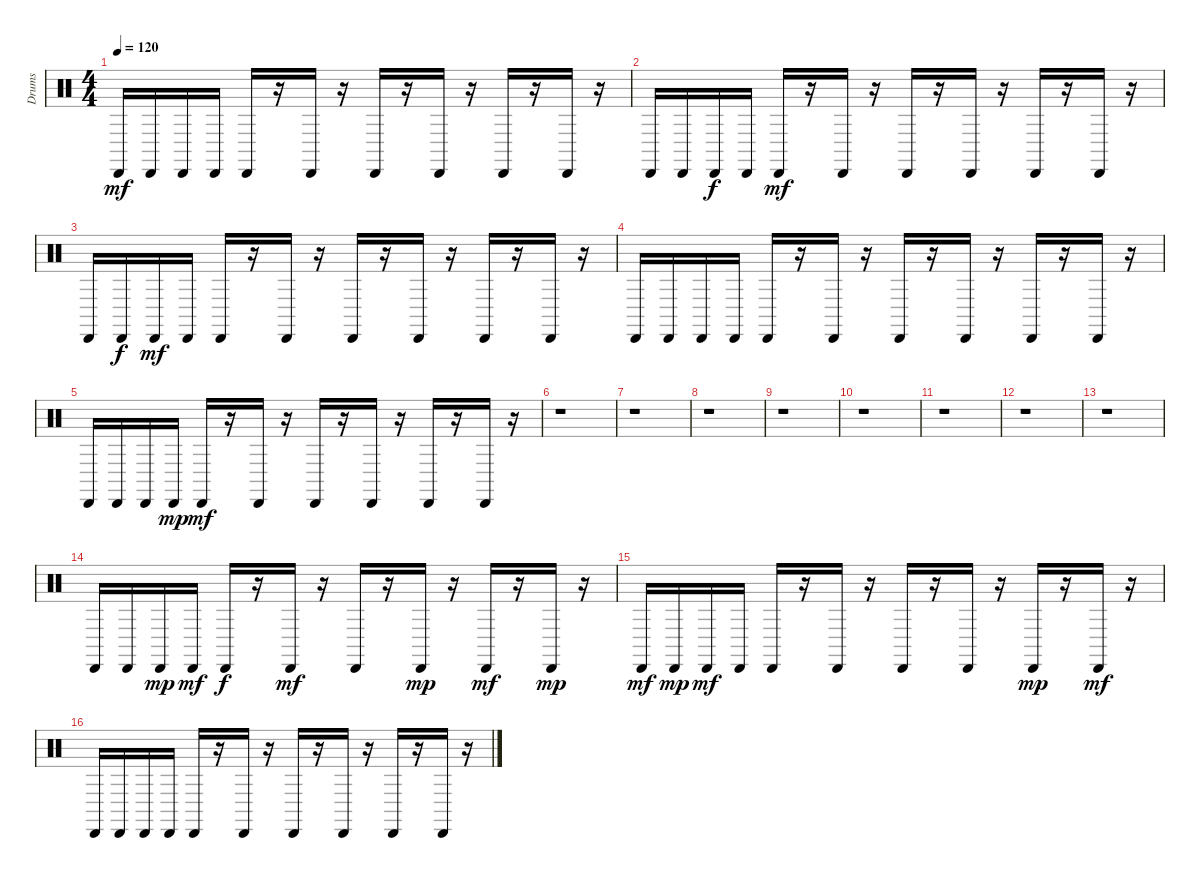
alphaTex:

\track ("Drums" "Drums") {instrument percussion}
\staff {score}
\articulation defaults
\ts (4 4)
\tempo 120
\clef neutral
\ks c "Cabasa (hit)".16{dy mf} "Cabasa (hit)".16 "Cabasa (hit)".16 "Cabasa (hit)".16 "Cabasa (hit)".16
r.16 "Cabasa (hit)".16 r.16 "Cabasa (hit)".16 r.16 "Cabasa (hit)".16 r.16 "Cabasa (hit)".16 r.16 "Cabasa (hit)".16 r.16 |
"Cabasa (hit)".16 "Cabasa (hit)".16 "Cabasa (hit)".16{dy f} "Cabasa (hit)".16 "Cabasa (hit)".16{dy mf} r.16 "Cabasa (hit)".16 r.16 "Cabasa (hit)".16 r.16 "Cabasa (hit)".16 r.16 "Cabasa (hit)".16 r.16 "Cabasa (hit)".16 r.16 |
"Cabasa (hit)".16 "Cabasa (hit)".16{dy f} "Cabasa (hit)".16{dy mf} "Cabasa (hit)".16 "Cabasa (hit)".16 r.16 "Cabasa (hit)".16 r.16 "Cabasa (hit)".16 r.16 "Cabasa (hit)".16 r.16 "Cabasa (hit)".16 r.16 "Cabasa (hit)".16 r.16 |
"Cabasa (hit)".16 "Cabasa (hit)".16 "Cabasa (hit)".16 "Cabasa (hit)".16 "Cabasa (hit)".16 r.16 "Cabasa (hit)".16 r.16 "Cabasa (hit)".16 r.16 "Cabasa (hit)".16 r.16 "Cabasa (hit)".16 r.16 "Cabasa (hit)".16 r.16 |
"Cabasa (hit)".16 "Cabasa (hit)".16 "Cabasa (hit)".16 "Cabasa (hit)".16{dy mp} "Cabasa (hit)".16{dy mf} r.16 "Cabasa (hit)".16 r.16 "Cabasa (hit)".16 r.16 "Cabasa (hit)".16 r.16 "Cabasa (hit)".16 r.16 "Cabasa (hit)".16 r.16 |
r.1 |
r.1 |
r.1 |
r.1 |
r.1 |
r.1 |
r.1 |
r.1 |
"Cabasa (hit)".16 "Cabasa (hit)".16 "Cabasa (hit)".16{dy mp} "Cabasa (hit)".16{dy mf} "Cabasa (hit)".16{dy f} r.16 "Cabasa (hit)".16{dy mf} r.16 "Cabasa (hit)".16 r.16 "Cabasa (hit)".16{dy mp} r.16 "Cabasa (hit)".16{dy mf} r.16 "Cabasa (hit)".16{dy mp} r.16 |
"Cabasa (hit)".16{dy mf} "Cabasa (hit)".16{dy mp} "Cabasa (hit)".16{dy mf} "Cabasa (hit)".16 "Cabasa (hit)".16 r.16 "Cabasa (hit)".16 r.16 "Cabasa (hit)".16 r.16 "Cabasa (hit)".16 r.16 "Cabasa (hit)".16{dy mp} r.16 "Cabasa (hit)".16{dy mf} r.16 |
"Cabasa (hit)".16 "Cabasa (hit)".16 "Cabasa (hit)".16 "Cabasa (hit)".16 "Cabasa (hit)".16 r.16 "Cabasa (hit)".16 r.16 "Cabasa (hit)".16 r.16 "Cabasa (hit)".16 r.16 "Cabasa (hit)".16 r.16 "Cabasa (hit)".16 r.16
